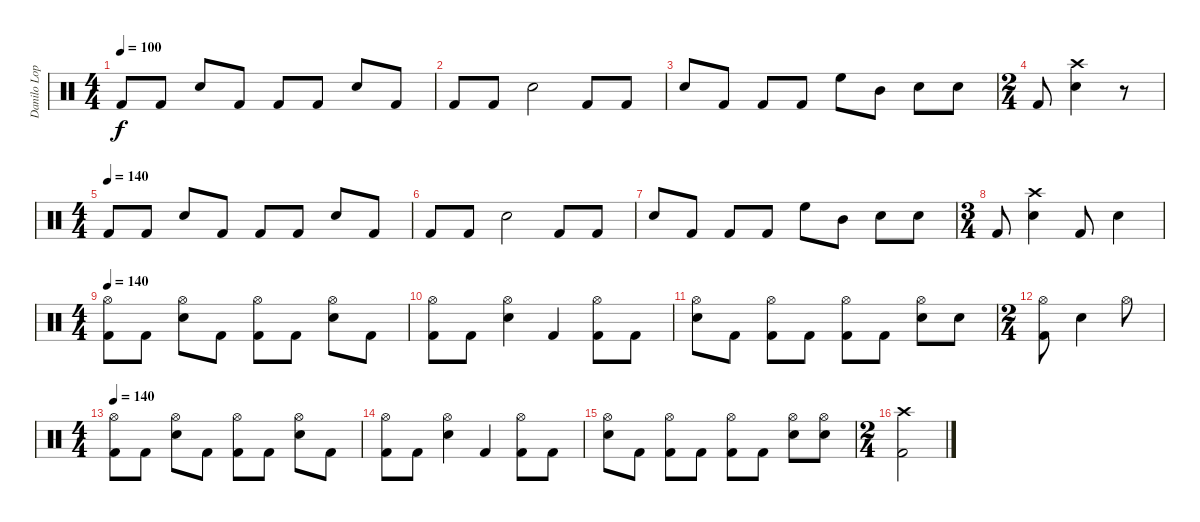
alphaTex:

\track ("Danilo Lopes" "Danilo Lop") {instrument percussion}
\staff {score}
\articulation defaults
\ts (4 4)
\tempo 140
\tempo 100
\clef neutral
\ks c "Kick (hit) 2".8{dy f} "Kick (hit) 2".8 "Snare (hit) 2".8 "Kick (hit) 2".8 "Kick (hit) 2".8 "Kick (hit) 2".8 "Snare (hit) 2".8 "Kick (hit) 2".8
|
"Kick (hit) 2".8 "Kick (hit) 2".8 "Snare (hit) 2".2 "Kick (hit) 2".8 "Kick (hit) 2".8 |
"Snare (hit) 2".8 "Kick (hit) 2".8 "Kick (hit) 2".8 "Kick (hit) 2".8 "High Floor Tom (hit)".8 "Mid Tom (hit)".8 "Snare (hit) 2".8 "Snare (hit) 2".8 |
\ts (2 4)
"Kick (hit) 2".8 ("Crash high (hit)" "Snare (hit) 2").4 r.8 |
\ts (4 4)
\tempo (140)
"Kick (hit) 2".8 "Kick (hit) 2".8 "Snare (hit) 2".8 "Kick (hit) 2".8 "Kick (hit) 2".8 "Kick (hit) 2".8 "Snare (hit) 2".8 "Kick (hit) 2".8 |
"Kick (hit) 2".8 "Kick (hit) 2".8 "Snare (hit) 2".2 "Kick (hit) 2".8 "Kick (hit) 2".8 |
"Snare (hit) 2".8 "Kick (hit) 2".8 "Kick (hit) 2".8 "Kick (hit) 2".8 "High Floor Tom (hit)".8 "Mid Tom (hit)".8 "Snare (hit) 2".8 "Snare (hit) 2".8 |
\ts (3 4)
"Kick (hit) 2".8 ("Snare (hit) 2" "Crash high (hit)").4 "Kick (hit) 2".8 "Snare (hit) 2".4 |
\ts (4 4)
\tempo 140
("Hi-Hat (open)" "Kick (hit) 2").8 "Kick (hit) 2".8 ("Hi-Hat (open)" "Snare (hit) 2").8 "Kick (hit) 2".8 ("Hi-Hat (open)" "Kick (hit) 2").8 "Kick (hit) 2".8 ("Hi-Hat (open)" "Snare (hit) 2").8 "Kick (hit) 2".8 |
("Hi-Hat (open)" "Kick (hit) 2").8 "Kick (hit) 2".8 ("Hi-Hat (open)" "Snare (hit) 2").4 "Kick (hit) 2".4 ("Hi-Hat (open)" "Kick (hit) 2").8 "Kick (hit) 2".8 |
("Hi-Hat (open)" "Snare (hit) 2").8 "Kick (hit) 2".8 ("Hi-Hat (open)" "Kick (hit) 2").8 "Kick (hit) 2".8 ("Hi-Hat (open)" "Kick (hit) 2").8 "Kick (hit) 2".8 ("Hi-Hat (open)" "Snare (hit) 2").8 "Snare (hit) 2".8 |
\ts (2 4)
("Hi-Hat (open)" "Kick (hit) 2").8 "Snare (hit) 2".4 "Hi-Hat (open)".8 |
\ts (4 4)
\tempo 140
("Hi-Hat (open)" "Kick (hit) 2").8 "Kick (hit) 2".8 ("Hi-Hat (open)" "Snare (hit) 2").8 "Kick (hit) 2".8 ("Hi-Hat (open)" "Kick (hit) 2").8 "Kick (hit) 2".8 ("Hi-Hat (open)" "Snare (hit) 2").8 "Kick (hit) 2".8 |
("Hi-Hat (open)" "Kick (hit) 2").8 "Kick (hit) 2".8 ("Hi-Hat (open)" "Snare (hit) 2").4 "Kick (hit) 2".4 ("Hi-Hat (open)" "Kick (hit) 2").8 "Kick (hit) 2".8 |
("Hi-Hat (open)" "Snare (hit) 2").8 "Kick (hit) 2".8 ("Hi-Hat (open)" "Kick (hit) 2").8 "Kick (hit) 2".8 ("Hi-Hat (open)" "Kick (hit) 2").8 "Kick (hit) 2".8 ("Hi-Hat (open)" "Snare (hit) 2").8 ("Hi-Hat (open)" "Snare (hit) 2").8 |
\ts (2 4)
("Crash high (hit)" "Kick (hit) 2").2
